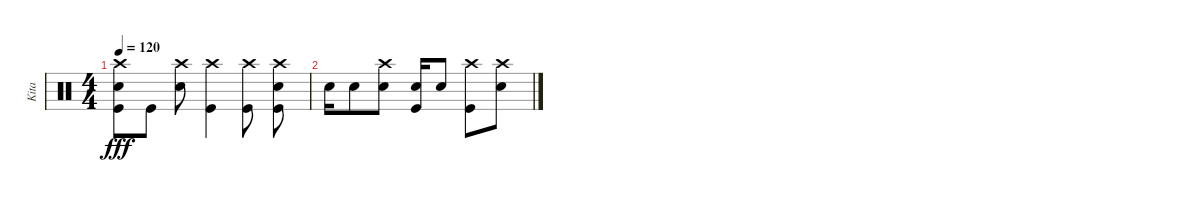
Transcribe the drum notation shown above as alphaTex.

\track ("Kita" "Kita") {instrument percussion}
\staff {score}
\articulation defaults
\ts (4 4)
\tempo 120
\clef neutral
\ks c
("Kick (hit)" "Snare (hit) 2" "Crash high (hit)").8{dy fff} "Kick (hit)".8 ("Snare (hit) 2" "Crash high (hit)").8 ("Crash high (hit)" "Kick (hit)").4 ("Crash high (hit)" "Kick (hit)").8 ("Crash high (hit)" "Snare (hit) 2" "Kick (hit)").8 |
"Snare (hit) 2".16 "Snare (hit) 2".8 ("Snare (hit) 2" "Crash high (hit)").8 ("Snare (hit) 2" "Kick (hit)").16 "Snare (hit) 2".8 ("Kick (hit)" "Crash high (hit)").8 ("Crash high (hit)" "Snare (hit) 2").8
